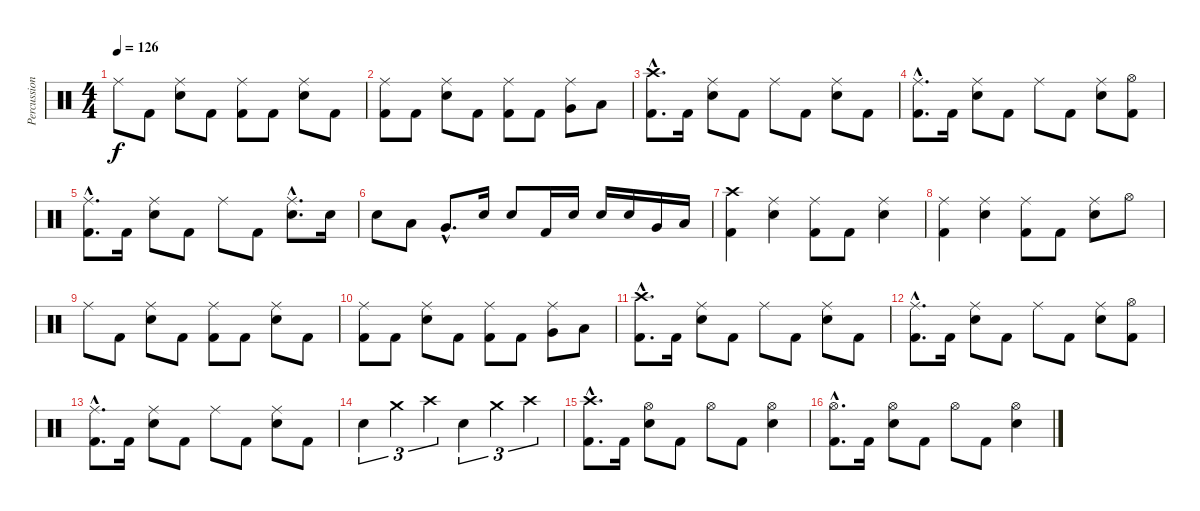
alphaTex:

\track ("Percussion" "Percussion") {instrument percussion}
\staff {score}
\articulation defaults
\ts (4 4)
\tempo 126
\clef neutral
\ks c "Ride (middle)".8{dy f} "Kick (hit) 2".8
("Ride (middle)" "Snare (hit) 2").8 "Kick (hit) 2".8 ("Ride (middle)" "Kick (hit) 2").8 "Kick (hit) 2".8 ("Ride (middle)" "Snare (hit) 2").8 "Kick (hit) 2".8 |
("Ride (middle)" "Kick (hit) 2").8 "Kick (hit) 2".8 ("Ride (middle)" "Snare (hit) 2").8 "Kick (hit) 2".8 ("Ride (middle)" "Kick (hit) 2").8 "Kick (hit) 2".8 ("Ride (middle)" "Very Low Tom (hit)").8 "Low Floor Tom (hit)".8 |
("Crash high (hit)"{hac} "Kick (hit) 2"{hac}).8{d} "Kick (hit) 2".16 ("Ride (middle)" "Snare (hit) 2").8 "Kick (hit) 2".8 "Ride (middle)".8 "Kick (hit) 2".8 ("Ride (middle)" "Snare (hit) 2").8 "Kick (hit) 2".8 |
("Ride (middle)"{hac} "Kick (hit) 2"{hac}).8{d} "Kick (hit) 2".16 ("Ride (middle)" "Snare (hit) 2").8 "Kick (hit) 2".8 "Ride (middle)".8 "Kick (hit) 2".8 ("Ride (middle)" "Snare (hit) 2").8 ("Hi-Hat (open)" "Kick (hit) 2").8 |
("Ride (middle)"{hac} "Kick (hit) 2"{hac}).8{d} "Kick (hit) 2".16 ("Ride (middle)" "Snare (hit) 2").8 "Kick (hit) 2".8 "Ride (middle)".8 "Kick (hit) 2".8 ("Ride (middle)"{hac} "Snare (hit) 2"{hac}).8{d} "Snare (hit) 2".16 |
"Snare (hit) 2".8 "Low Tom (hit)".8 "Very Low Tom (hit)"{hac}.8{d} "Snare (hit) 2".16 "Snare (hit) 2".8 "Kick (hit) 2".16 "Snare (hit) 2".16 "Snare (hit) 2".16 "Snare (hit) 2".16 "Very Low Tom (hit)".16 "Low Floor Tom (hit)".16 |
("Crash high (hit)" "Kick (hit) 2").4 ("Ride (middle)" "Snare (hit) 2").4 ("Ride (middle)" "Kick (hit) 2").8 "Kick (hit) 2".8 ("Ride (middle)" "Snare (hit) 2").4 |
("Ride (middle)" "Kick (hit) 2").4 ("Ride (middle)" "Snare (hit) 2").4 ("Ride (middle)" "Kick (hit) 2").8 "Kick (hit) 2".8 ("Ride (middle)" "Snare (hit) 2").8 "Hi-Hat (open)".8 |
"Ride (middle)".8 "Kick (hit) 2".8 ("Ride (middle)" "Snare (hit) 2").8 "Kick (hit) 2".8 ("Ride (middle)" "Kick (hit) 2").8 "Kick (hit) 2".8 ("Ride (middle)" "Snare (hit) 2").8 "Kick (hit) 2".8 |
("Ride (middle)" "Kick (hit) 2").8 "Kick (hit) 2".8 ("Ride (middle)" "Snare (hit) 2").8 "Kick (hit) 2".8 ("Ride (middle)" "Kick (hit) 2").8 "Kick (hit) 2".8 ("Ride (middle)" "Very Low Tom (hit)").8 "Low Floor Tom (hit)".8 |
("Crash high (hit)"{hac} "Kick (hit) 2"{hac}).8{d} "Kick (hit) 2".16 ("Ride (middle)" "Snare (hit) 2").8 "Kick (hit) 2".8 "Ride (middle)".8 "Kick (hit) 2".8 ("Ride (middle)" "Snare (hit) 2").8 "Kick (hit) 2".8 |
("Ride (middle)"{hac} "Kick (hit) 2"{hac}).8{d} "Kick (hit) 2".16 ("Ride (middle)" "Snare (hit) 2").8 "Kick (hit) 2".8 "Ride (middle)".8 "Kick (hit) 2".8 ("Ride (middle)" "Snare (hit) 2").8 ("Hi-Hat (open)" "Kick (hit) 2").8 |
("Ride (middle)"{hac} "Kick (hit) 2"{hac}).8{d} "Kick (hit) 2".16 ("Ride (middle)" "Snare (hit) 2").8 "Kick (hit) 2".8 "Ride (middle)".8 "Kick (hit) 2".8 ("Ride (middle)" "Snare (hit) 2").8 "Kick (hit) 2".8 |
"Snare (hit) 2".4{tu (3 2)} "Crash medium (hit)".4{tu (3 2)} "Crash high (hit)".4{tu (3 2)} "Snare (hit) 2".4{tu (3 2)} "Crash medium (hit)".4{tu (3 2)} "Crash high (hit)".4{tu (3 2)} |
("Crash high (hit)"{hac} "Kick (hit) 2"{hac}).8{d} "Kick (hit) 2".16 ("Hi-Hat (open)" "Snare (hit) 2").8 "Kick (hit) 2".8 "Hi-Hat (open)".8 "Kick (hit) 2".8 ("Hi-Hat (open)" "Snare (hit) 2").4 |
("Hi-Hat (open)"{hac} "Kick (hit) 2"{hac}).8{d} "Kick (hit) 2".16 ("Hi-Hat (open)" "Snare (hit) 2").8 "Kick (hit) 2".8 "Hi-Hat (open)".8 "Kick (hit) 2".8 ("Hi-Hat (open)" "Snare (hit) 2").4
